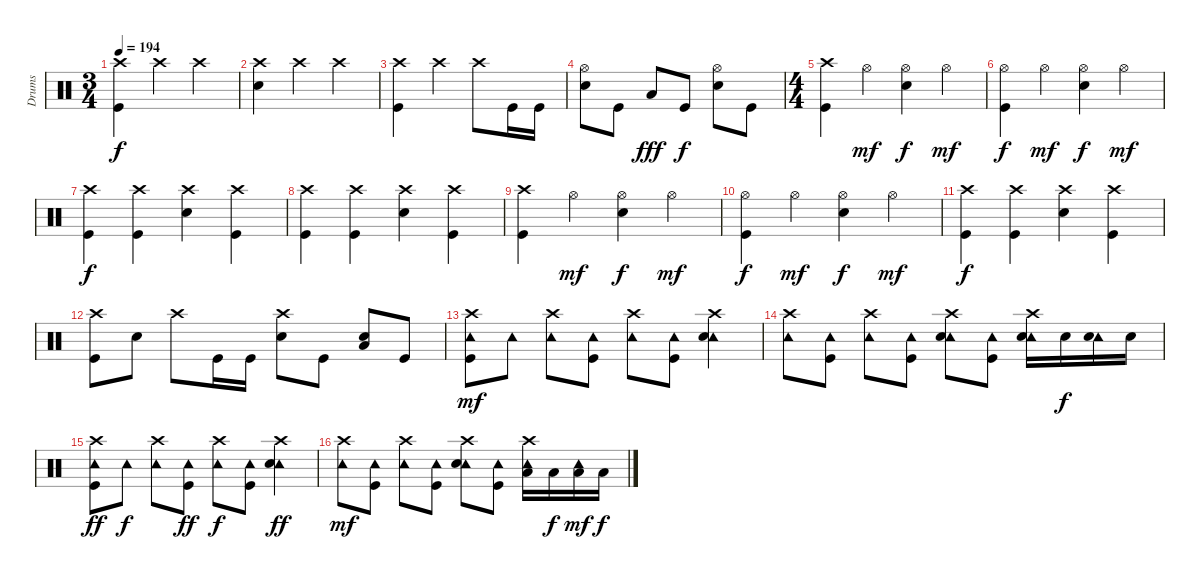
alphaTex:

\track ("Drums" "Drums") {instrument percussion}
\staff {score}
\articulation defaults
\ts (3 4)
\tempo 194
\clef neutral
\ks c
("Crash high (hit)" "Kick (hit)").4{dy f} "Crash high (hit)".4 "Crash high (hit)".4 |
("Crash high (hit)" "Electric Snare (hit)").4 "Crash high (hit)".4 "Crash high (hit)".4 |
("Crash high (hit)" "Kick (hit)").4 "Crash high (hit)".4 "Crash high (hit)".8 "Kick (hit)".16 "Kick (hit)".16 |
("Hi-Hat (open)" "Electric Snare (hit)").8 "Kick (hit)".8 "Low Tom (hit)".8{dy fff} "Kick (hit)".8{dy f} ("Hi-Hat (open)" "Electric Snare (hit)").8 "Kick (hit)".8 |
\ts (4 4)
("Crash high (hit)" "Kick (hit)").4 "Hi-Hat (open)".4{dy mf} ("Hi-Hat (open)" "Electric Snare (hit)").4{dy f} "Hi-Hat (open)".4{dy mf} |
("Hi-Hat (open)" "Kick (hit)").4{dy f} "Hi-Hat (open)".4{dy mf} ("Hi-Hat (open)" "Electric Snare (hit)").4{dy f} "Hi-Hat (open)".4{dy mf} |
("Crash high (hit)" "Kick (hit)").4{dy f} ("Crash high (hit)" "Kick (hit)").4 ("Crash high (hit)" "Electric Snare (hit)").4 ("Crash high (hit)" "Kick (hit)").4 |
("Crash high (hit)" "Kick (hit)").4 ("Crash high (hit)" "Kick (hit)").4 ("Crash high (hit)" "Electric Snare (hit)").4 ("Crash high (hit)" "Kick (hit)").4 |
("Crash high (hit)" "Kick (hit)").4 "Hi-Hat (open)".4{dy mf} ("Hi-Hat (open)" "Electric Snare (hit)").4{dy f} "Hi-Hat (open)".4{dy mf} |
("Hi-Hat (open)" "Kick (hit)").4{dy f} "Hi-Hat (open)".4{dy mf} ("Hi-Hat (open)" "Electric Snare (hit)").4{dy f} "Hi-Hat (open)".4{dy mf} |
("Crash high (hit)" "Kick (hit)").4{dy f} ("Crash high (hit)" "Kick (hit)").4 ("Crash high (hit)" "Electric Snare (hit)").4 ("Crash high (hit)" "Kick (hit)").4 |
("Crash high (hit)" "Kick (hit)").8 "Electric Snare (hit)".8 "Crash high (hit)".8 "Kick (hit)".16 "Kick (hit)".16 ("Crash high (hit)" "Electric Snare (hit)").8 "Kick (hit)".8 ("Low Tom (hit)" "Electric Snare (hit)").8 "Kick (hit)".8 |
("Tambourine (hit)" "Crash high (hit)" "Kick (hit)").8{dy mf} "Tambourine (hit)".8 ("Tambourine (hit)" "Crash high (hit)").8 ("Tambourine (hit)" "Kick (hit)").8 ("Tambourine (hit)" "Crash high (hit)").8 ("Tambourine (hit)" "Kick (hit)").8 ("Tambourine (hit)" "Crash high (hit)" "Electric Snare (hit)").4 |
("Tambourine (hit)" "Crash high (hit)").8 ("Tambourine (hit)" "Kick (hit)").8 ("Tambourine (hit)" "Crash high (hit)").8 ("Tambourine (hit)" "Kick (hit)").8 ("Tambourine (hit)" "Crash high (hit)" "Electric Snare (hit)").8 ("Tambourine (hit)" "Kick (hit)").8 ("Tambourine (hit)" "Crash high (hit)" "Electric Snare (hit)").16 "Electric Snare (hit)".16{dy f} ("Tambourine (hit)" "Electric Snare (hit)").16 "Electric Snare (hit)".16 |
("Tambourine (hit)" "Crash high (hit)" "Kick (hit)").8{dy ff} "Tambourine (hit)".8{dy f} ("Tambourine (hit)" "Crash high (hit)").8 ("Tambourine (hit)" "Kick (hit)").8{dy ff} ("Tambourine (hit)" "Crash high (hit)").8{dy f} ("Tambourine (hit)" "Kick (hit)").8 ("Tambourine (hit)" "Crash high (hit)" "Electric Snare (hit)").4{dy ff} |
("Tambourine (hit)" "Crash high (hit)").8{dy mf} ("Tambourine (hit)" "Kick (hit)").8 ("Tambourine (hit)" "Crash high (hit)").8 ("Tambourine (hit)" "Kick (hit)").8 ("Tambourine (hit)" "Crash high (hit)" "Electric Snare (hit)").8 ("Tambourine (hit)" "Kick (hit)").8 ("Tambourine (hit)" "Crash high (hit)" "Low Tom (hit)").16 "Low Tom (hit)".16{dy f} ("Tambourine (hit)" "Low Tom (hit)").16{dy mf} "Low Tom (hit)".16{dy f}
